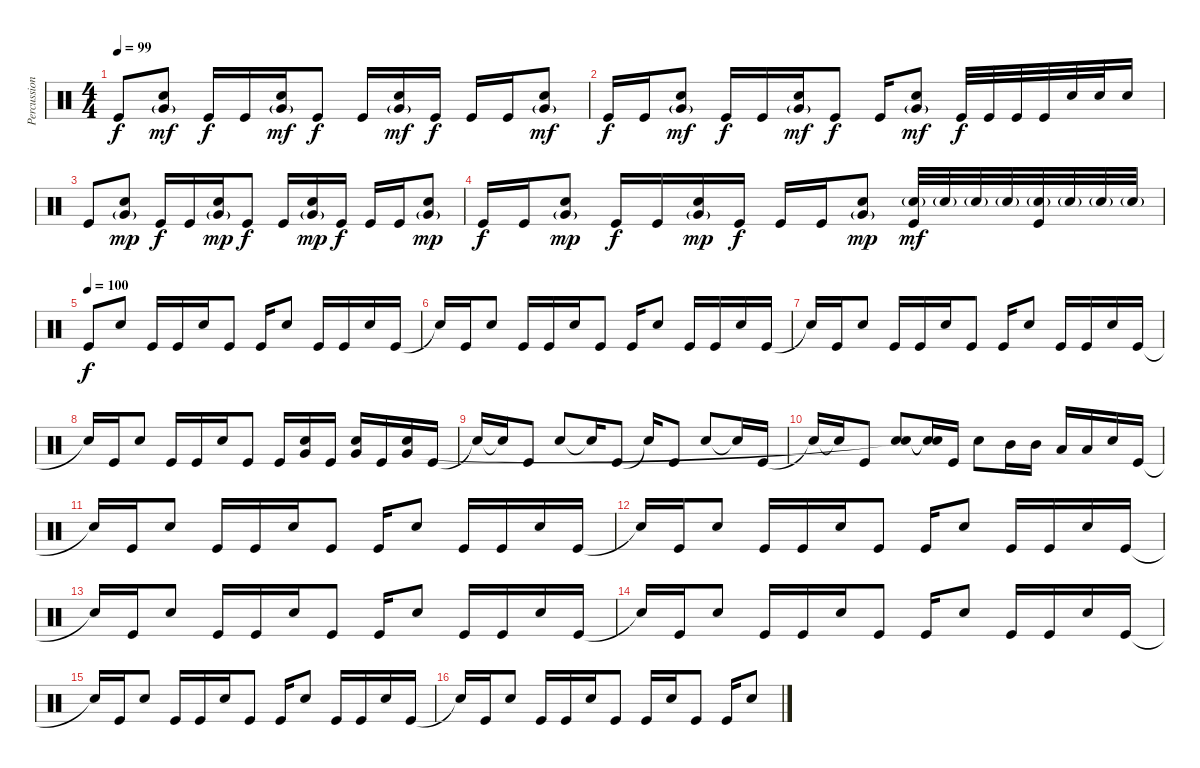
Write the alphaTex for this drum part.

\track ("Percussion" "Percussion") {instrument percussion}
\staff {score}
\articulation defaults
\ts (4 4)
\tempo 99
\clef neutral
\ks c "Kick (hit)".8{dy f}
("Electric Snare (hit)" "Very Low Tom (hit)"{g}).8{dy mf} "Kick (hit)".16{dy f} "Kick (hit)".16 ("Electric Snare (hit)" "Very Low Tom (hit)"{g}).16{dy mf} "Kick (hit)".8{dy f} "Kick (hit)".16 ("Electric Snare (hit)" "Very Low Tom (hit)"{g}).16{dy mf} "Kick (hit)".16{dy f} "Kick (hit)".16 "Kick (hit)".16 ("Electric Snare (hit)" "Very Low Tom (hit)"{g}).8{dy mf} |
"Kick (hit)".16{dy f} "Kick (hit)".16 ("Electric Snare (hit)" "Very Low Tom (hit)"{g}).8{dy mf} "Kick (hit)".16{dy f} "Kick (hit)".16 ("Electric Snare (hit)" "Very Low Tom (hit)"{g}).16{dy mf} "Kick (hit)".8{dy f} "Kick (hit)".16 ("Electric Snare (hit)" "Very Low Tom (hit)"{g}).8{dy mf} "Kick (hit)".32{dy f} "Kick (hit)".32 "Kick (hit)".32 "Kick (hit)".32 "Electric Snare (hit)".32 "Electric Snare (hit)".32 "Electric Snare (hit)".16 |
"Kick (hit)".8 ("Electric Snare (hit)" "Very Low Tom (hit)"{g}).8{dy mp} "Kick (hit)".16{dy f} "Kick (hit)".16 ("Electric Snare (hit)" "Very Low Tom (hit)"{g}).16{dy mp} "Kick (hit)".8{dy f} "Kick (hit)".16 ("Electric Snare (hit)" "Very Low Tom (hit)"{g}).16{dy mp} "Kick (hit)".16{dy f} "Kick (hit)".16 "Kick (hit)".16 ("Electric Snare (hit)" "Very Low Tom (hit)"{g}).8{dy mp} |
"Kick (hit)".16{dy f} "Kick (hit)".16 ("Electric Snare (hit)" "Very Low Tom (hit)"{g}).8{dy mp} "Kick (hit)".16{dy f} "Kick (hit)".16 ("Electric Snare (hit)" "Very Low Tom (hit)"{g}).16{dy mp} "Kick (hit)".16{dy f} "Kick (hit)".16 "Kick (hit)".16 ("Electric Snare (hit)" "Very Low Tom (hit)"{g}).8{dy mp} ("Electric Snare (hit)"{g} "Kick (hit)").32{dy mf} "Electric Snare (hit)"{g}.32 "Electric Snare (hit)"{g}.32 "Electric Snare (hit)"{g}.32 ("Electric Snare (hit)"{g} "Kick (hit)").32 "Electric Snare (hit)"{g}.32 "Electric Snare (hit)"{g}.32 "Electric Snare (hit)"{g}.32 |
\tempo (100)
"Kick (hit)".8{dy f} "Electric Snare (hit)".8 "Kick (hit)".16 "Kick (hit)".16 "Electric Snare (hit)".16 "Kick (hit)".8 "Kick (hit)".16 "Electric Snare (hit)".8 "Kick (hit)".16 "Kick (hit)".16 "Electric Snare (hit)".16 "Kick (hit)".16 |
"Snare (hit)"{t}.16 "Kick (hit)".16 "Electric Snare (hit)".8 "Kick (hit)".16 "Kick (hit)".16 "Electric Snare (hit)".16 "Kick (hit)".8 "Kick (hit)".16 "Electric Snare (hit)".8 "Kick (hit)".16 "Kick (hit)".16 "Electric Snare (hit)".16 "Kick (hit)".16 |
"Snare (hit)"{t}.16 "Kick (hit)".16 "Electric Snare (hit)".8 "Kick (hit)".16 "Kick (hit)".16 "Electric Snare (hit)".16 "Kick (hit)".8 "Kick (hit)".16 "Electric Snare (hit)".8 "Kick (hit)".16 "Kick (hit)".16 "Electric Snare (hit)".16 "Kick (hit)".16 |
"Snare (hit)"{t}.16 "Kick (hit)".16 "Electric Snare (hit)".8 "Kick (hit)".16 "Kick (hit)".16 "Electric Snare (hit)".16 "Kick (hit)".8 "Kick (hit)".16 ("Electric Snare (hit)" "Very Low Tom (hit)").16 "Kick (hit)".16 ("Electric Snare (hit)" "Very Low Tom (hit)").16 "Kick (hit)".16 ("Electric Snare (hit)" "Very Low Tom (hit)").16 "Kick (hit)".16 |
"Snare (hit)"{t}.16 "Snare (hit)"{t}.16 "Kick (hit)".8 "Electric Snare (hit)".8 "Snare (hit)"{t}.16 "Kick (hit)".8 "Snare (hit)"{t}.16 "Kick (hit)".8 "Electric Snare (hit)".8 "Snare (hit)"{t}.16 "Kick (hit)".16 |
"Snare (hit)"{t}.16 "Snare (hit)"{t}.16 "Kick (hit)".8 ("Electric Snare (hit)" "Snare (hit)"{t}).8 ("Snare (hit)"{t} "Snare (hit)"{t}).16 "Kick (hit)".16 "Electric Snare (hit)".8 "Mid Tom (hit)".16 "Mid Tom (hit)".16 "Low Tom (hit)".16 "Low Tom (hit)".16 "Electric Snare (hit)".16 "Kick (hit)".16 |
"Snare (hit)"{t}.16 "Kick (hit)".16 "Electric Snare (hit)".8 "Kick (hit)".16 "Kick (hit)".16 "Electric Snare (hit)".16 "Kick (hit)".8 "Kick (hit)".16 "Electric Snare (hit)".8 "Kick (hit)".16 "Kick (hit)".16 "Electric Snare (hit)".16 "Kick (hit)".16 |
"Snare (hit)"{t}.16 "Kick (hit)".16 "Electric Snare (hit)".8 "Kick (hit)".16 "Kick (hit)".16 "Electric Snare (hit)".16 "Kick (hit)".8 "Kick (hit)".16 "Electric Snare (hit)".8 "Kick (hit)".16 "Kick (hit)".16 "Electric Snare (hit)".16 "Kick (hit)".16 |
"Snare (hit)"{t}.16 "Kick (hit)".16 "Electric Snare (hit)".8 "Kick (hit)".16 "Kick (hit)".16 "Electric Snare (hit)".16 "Kick (hit)".8 "Kick (hit)".16 "Electric Snare (hit)".8 "Kick (hit)".16 "Kick (hit)".16 "Electric Snare (hit)".16 "Kick (hit)".16 |
"Snare (hit)"{t}.16 "Kick (hit)".16 "Electric Snare (hit)".8 "Kick (hit)".16 "Kick (hit)".16 "Electric Snare (hit)".16 "Kick (hit)".8 "Kick (hit)".16 "Electric Snare (hit)".8 "Kick (hit)".16 "Kick (hit)".16 "Electric Snare (hit)".16 "Kick (hit)".16 |
"Snare (hit)"{t}.16 "Kick (hit)".16 "Electric Snare (hit)".8 "Kick (hit)".16 "Kick (hit)".16 "Electric Snare (hit)".16 "Kick (hit)".8 "Kick (hit)".16 "Electric Snare (hit)".8 "Kick (hit)".16 "Kick (hit)".16 "Electric Snare (hit)".16 "Kick (hit)".16 |
"Snare (hit)"{t}.16 "Kick (hit)".16 "Electric Snare (hit)".8 "Kick (hit)".16 "Kick (hit)".16 "Electric Snare (hit)".16 "Kick (hit)".8 "Kick (hit)".16 "Electric Snare (hit)".16 "Kick (hit)".8 "Kick (hit)".16 "Electric Snare (hit)".8
